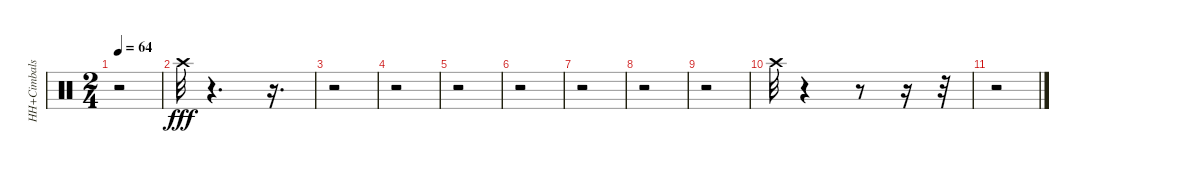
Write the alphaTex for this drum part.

\track ("HH+Cimbals" "HH+Cimbals") {instrument percussion}
\staff {score}
\articulation defaults
\ts (2 4)
\tempo 64
\clef neutral
\ks c
r.2{dy fff} |
"Crash high (hit)".32 r.4{d} r.16{d} |
r.2 |
r.2 |
r.2 |
r.2 |
r.2 |
r.2 |
r.2 |
"Crash high (hit)".32 r.4 r.8 r.16 r.32 |
r.2
